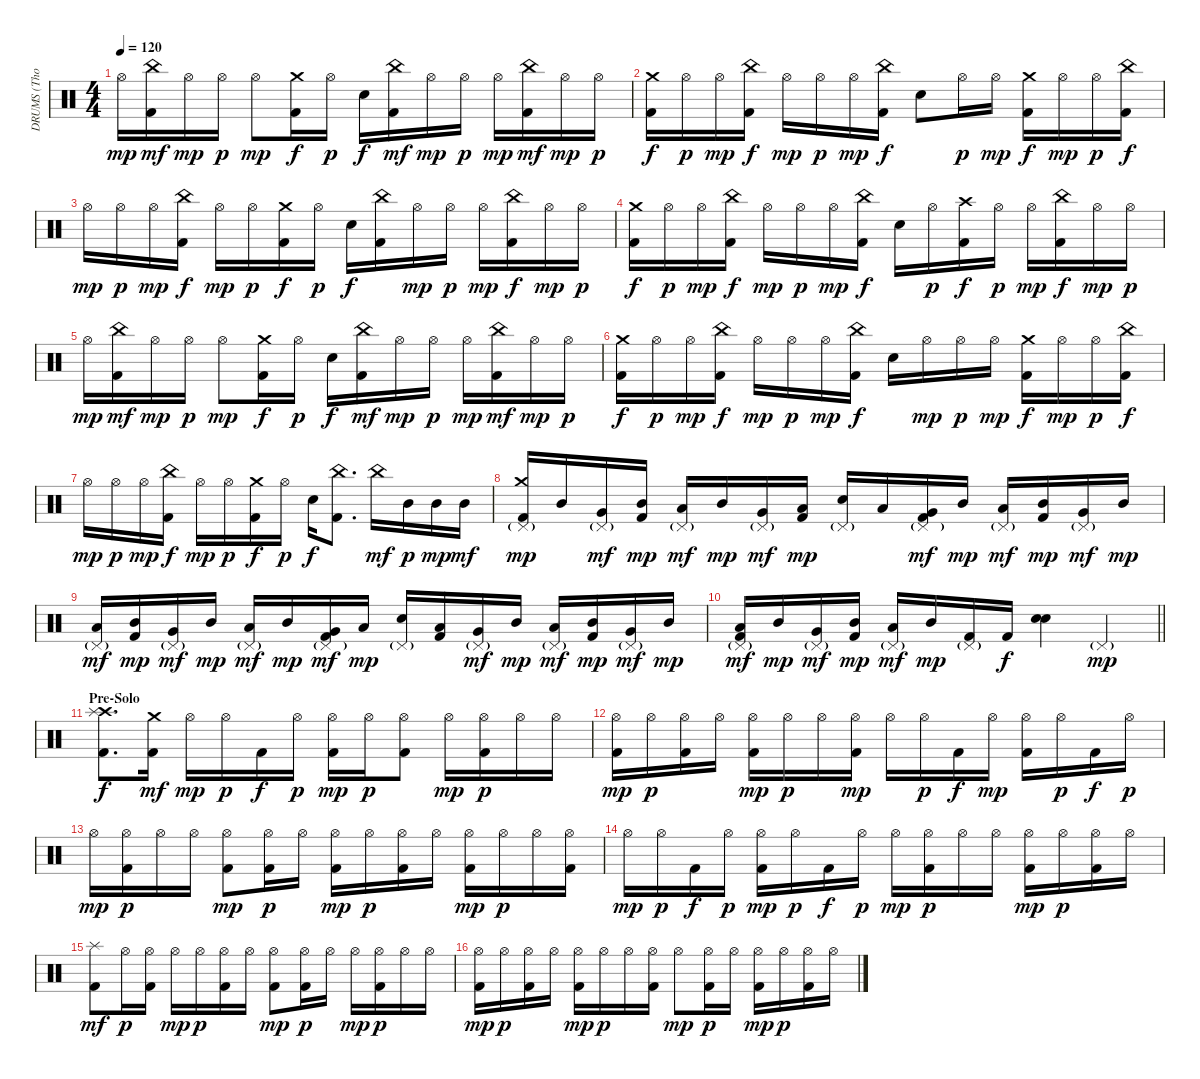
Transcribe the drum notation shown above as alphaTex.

\track ("DRUMS (Thomas Haake)" "DRUMS (Tho") {instrument percussion}
\staff {score}
\articulation defaults
\ts (4 4)
\tempo 120
\clef neutral
\ks c "Hi-Hat (open)".16{dy mp}
("China (hit)" "Kick (hit) 2").16{dy mf} "Hi-Hat (open)".16{dy mp} "Hi-Hat (open)".16{dy p} "Hi-Hat (open)".8{dy mp} ("Crash medium (hit)" "Kick (hit) 2").16{dy f} "Hi-Hat (open)".16{dy p} "Electric Snare (hit)".16{dy f} ("China (hit)" "Kick (hit) 2").16{dy mf} "Hi-Hat (open)".16{dy mp} "Hi-Hat (open)".16{dy p} "Hi-Hat (open)".16{dy mp} ("China (hit)" "Kick (hit) 2").16{dy mf} "Hi-Hat (open)".16{dy mp} "Hi-Hat (open)".16{dy p} |
("Crash medium (hit)" "Kick (hit) 2").16{dy f} "Hi-Hat (open)".16{dy p} "Hi-Hat (open)".16{dy mp} ("China (hit)" "Kick (hit) 2").16{dy f} "Hi-Hat (open)".16{dy mp} "Hi-Hat (open)".16{dy p} "Hi-Hat (open)".16{dy mp} ("China (hit)" "Kick (hit) 2").16{dy f} "Electric Snare (hit)".8 "Hi-Hat (open)".16{dy p} "Hi-Hat (open)".16{dy mp} ("Crash medium (hit)" "Kick (hit) 2").16{dy f} "Hi-Hat (open)".16{dy mp} "Hi-Hat (open)".16{dy p} ("China (hit)" "Kick (hit) 2").16{dy f} |
"Hi-Hat (open)".16{dy mp} "Hi-Hat (open)".16{dy p} "Hi-Hat (open)".16{dy mp} ("China (hit)" "Kick (hit) 2").16{dy f} "Hi-Hat (open)".16{dy mp} "Hi-Hat (open)".16{dy p} ("Crash medium (hit)" "Kick (hit) 2").16{dy f} "Hi-Hat (open)".16{dy p} "Electric Snare (hit)".16{dy f} ("China (hit)" "Kick (hit) 2").16 "Hi-Hat (open)".16{dy mp} "Hi-Hat (open)".16{dy p} "Hi-Hat (open)".16{dy mp} ("China (hit)" "Kick (hit) 2").16{dy f} "Hi-Hat (open)".16{dy mp} "Hi-Hat (open)".16{dy p} |
("Crash medium (hit)" "Kick (hit) 2").16{dy f} "Hi-Hat (open)".16{dy p} "Hi-Hat (open)".16{dy mp} ("China (hit)" "Kick (hit) 2").16{dy f} "Hi-Hat (open)".16{dy mp} "Hi-Hat (open)".16{dy p} "Hi-Hat (open)".16{dy mp} ("China (hit)" "Kick (hit) 2").16{dy f} "Electric Snare (hit)".16 "Hi-Hat (open)".16{dy p} ("Crash high (hit)" "Kick (hit) 2").16{dy f} "Hi-Hat (open)".16{dy p} "Hi-Hat (open)".16{dy mp} ("China (hit)" "Kick (hit) 2").16{dy f} "Hi-Hat (open)".16{dy mp} "Hi-Hat (open)".16{dy p} |
"Hi-Hat (open)".16{dy mp} ("China (hit)" "Kick (hit) 2").16{dy mf} "Hi-Hat (open)".16{dy mp} "Hi-Hat (open)".16{dy p} "Hi-Hat (open)".8{dy mp} ("Crash medium (hit)" "Kick (hit) 2").16{dy f} "Hi-Hat (open)".16{dy p} "Electric Snare (hit)".16{dy f} ("China (hit)" "Kick (hit) 2").16{dy mf} "Hi-Hat (open)".16{dy mp} "Hi-Hat (open)".16{dy p} "Hi-Hat (open)".16{dy mp} ("China (hit)" "Kick (hit) 2").16{dy mf} "Hi-Hat (open)".16{dy mp} "Hi-Hat (open)".16{dy p} |
("Crash medium (hit)" "Kick (hit) 2").16{dy f} "Hi-Hat (open)".16{dy p} "Hi-Hat (open)".16{dy mp} ("China (hit)" "Kick (hit) 2").16{dy f} "Hi-Hat (open)".16{dy mp} "Hi-Hat (open)".16{dy p} "Hi-Hat (open)".16{dy mp} ("China (hit)" "Kick (hit) 2").16{dy f} "Electric Snare (hit)".16 "Hi-Hat (open)".16{dy mp} "Hi-Hat (open)".16{dy p} "Hi-Hat (open)".16{dy mp} ("Crash medium (hit)" "Kick (hit) 2").16{dy f} "Hi-Hat (open)".16{dy mp} "Hi-Hat (open)".16{dy p} ("China (hit)" "Kick (hit) 2").16{dy f} |
"Hi-Hat (open)".16{dy mp} "Hi-Hat (open)".16{dy p} "Hi-Hat (open)".16{dy mp} ("China (hit)" "Kick (hit) 2").16{dy f} "Hi-Hat (open)".16{dy mp} "Hi-Hat (open)".16{dy p} ("Crash medium (hit)" "Kick (hit) 2").16{dy f} "Hi-Hat (open)".16{dy p} "Electric Snare (hit)".16{dy f} ("China (hit)" "Kick (hit) 2").8{d} "China (hit)".16{dy mf} "Mid Tom (hit)".16{dy p} "Mid Tom (hit)".16{dy mp} "Mid Tom (hit)".16{dy mf} |
("Pedal Hi-Hat (hit)"{g} "Crash medium (hit)" "Kick (hit) 2").16{dy mp} "Mid Tom (hit)".16 ("Pedal Hi-Hat (hit)"{g} "Very Low Tom (hit)").16{dy mf} ("Mid Tom (hit)" "Kick (hit) 2").16{dy mp} ("Pedal Hi-Hat (hit)"{g} "Low Floor Tom (hit)").16{dy mf} "Mid Tom (hit)".16{dy mp} ("Pedal Hi-Hat (hit)"{g} "Very Low Tom (hit)").16{dy mf} ("Low Tom (hit)" "Kick (hit) 2").16{dy mp} ("Pedal Hi-Hat (hit)"{g} "Electric Snare (hit)").16 "Low Tom (hit)".16 ("Pedal Hi-Hat (hit)"{g} "Very Low Tom (hit)" "Kick (hit) 2").16{dy mf} "Mid Tom (hit)".16{dy mp} ("Pedal Hi-Hat (hit)"{g} "Low Floor Tom (hit)").16{dy mf} ("Mid Tom (hit)" "Kick (hit) 2").16{dy mp} ("Pedal Hi-Hat (hit)"{g} "Very Low Tom (hit)").16{dy mf} "Mid Tom (hit)".16{dy mp} |
("Pedal Hi-Hat (hit)"{g} "Low Floor Tom (hit)").16{dy mf} ("Mid Tom (hit)" "Kick (hit) 2").16{dy mp} ("Pedal Hi-Hat (hit)"{g} "Very Low Tom (hit)").16{dy mf} "Mid Tom (hit)".16{dy mp} ("Pedal Hi-Hat (hit)"{g} "Low Floor Tom (hit)").16{dy mf} "Mid Tom (hit)".16{dy mp} ("Pedal Hi-Hat (hit)"{g} "Very Low Tom (hit)" "Kick (hit) 2").16{dy mf} "Low Tom (hit)".16{dy mp} ("Pedal Hi-Hat (hit)"{g} "Electric Snare (hit)").16 ("Low Tom (hit)" "Kick (hit) 2").16 ("Pedal Hi-Hat (hit)"{g} "Very Low Tom (hit)").16{dy mf} "Mid Tom (hit)".16{dy mp} ("Pedal Hi-Hat (hit)"{g} "Low Floor Tom (hit)").16{dy mf} ("Mid Tom (hit)" "Kick (hit) 2").16{dy mp} ("Pedal Hi-Hat (hit)"{g} "Very Low Tom (hit)").16{dy mf} "Mid Tom (hit)".16{dy mp} |
\barLineRight lightlight
("Pedal Hi-Hat (hit)"{g} "Low Floor Tom (hit)" "Kick (hit) 2").16{dy mf} "Mid Tom (hit)".16{dy mp} ("Pedal Hi-Hat (hit)"{g} "Very Low Tom (hit)").16{dy mf} ("Mid Tom (hit)" "Kick (hit) 2").16{dy mp} ("Pedal Hi-Hat (hit)"{g} "Low Floor Tom (hit)").16{dy mf} "Mid Tom (hit)".16{dy mp} ("Pedal Hi-Hat (hit)"{g} "Kick (hit) 2").16 "Kick (hit) 2".16{dy f} ("Electric Snare (hit)" "Electric Snare (hit)").4{bd 60} "Pedal Hi-Hat (hit)"{g}.4{dy mp} |
\section ("" "Pre-Solo")
("Crash high (hit)" "Splash (hit)" "Kick (hit) 2").8{d dy f} ("Crash medium (hit)" "Kick (hit) 2").16{dy mf} "Hi-Hat (open)".16{dy mp} "Hi-Hat (open)".16{dy p} "Kick (hit) 2".16{dy f} "Hi-Hat (open)".16{dy p} ("Hi-Hat (open)" "Kick (hit) 2").16{dy mp} "Hi-Hat (open)".16{dy p} ("Hi-Hat (open)" "Kick (hit) 2").8 "Hi-Hat (open)".16{dy mp} ("Hi-Hat (open)" "Kick (hit) 2").16{dy p} "Hi-Hat (open)".16 "Hi-Hat (open)".16 |
("Hi-Hat (open)" "Kick (hit) 2").16{dy mp} "Hi-Hat (open)".16{dy p} ("Hi-Hat (open)" "Kick (hit) 2").16 "Hi-Hat (open)".16 ("Hi-Hat (open)" "Kick (hit) 2").16{dy mp} "Hi-Hat (open)".16{dy p} "Hi-Hat (open)".16 ("Hi-Hat (open)" "Kick (hit) 2").16{dy mp} "Hi-Hat (open)".16 "Hi-Hat (open)".16{dy p} "Kick (hit) 2".16{dy f} "Hi-Hat (open)".16{dy mp} ("Hi-Hat (open)" "Kick (hit) 2").16 "Hi-Hat (open)".16{dy p} "Kick (hit) 2".16{dy f} "Hi-Hat (open)".16{dy p} |
"Hi-Hat (open)".16{dy mp} ("Hi-Hat (open)" "Kick (hit) 2").16{dy p} "Hi-Hat (open)".16 "Hi-Hat (open)".16 ("Hi-Hat (open)" "Kick (hit) 2").8{dy mp} ("Hi-Hat (open)" "Kick (hit) 2").16{dy p} "Hi-Hat (open)".16 ("Hi-Hat (open)" "Kick (hit) 2").16{dy mp} "Hi-Hat (open)".16{dy p} ("Hi-Hat (open)" "Kick (hit) 2").16 "Hi-Hat (open)".16 ("Hi-Hat (open)" "Kick (hit) 2").16{dy mp} "Hi-Hat (open)".16{dy p} "Hi-Hat (open)".16 ("Hi-Hat (open)" "Kick (hit) 2").16 |
"Hi-Hat (open)".16{dy mp} "Hi-Hat (open)".16{dy p} "Kick (hit) 2".16{dy f} "Hi-Hat (open)".16{dy p} ("Hi-Hat (open)" "Kick (hit) 2").16{dy mp} "Hi-Hat (open)".16{dy p} "Kick (hit) 2".16{dy f} "Hi-Hat (open)".16{dy p} "Hi-Hat (open)".16{dy mp} ("Hi-Hat (open)" "Kick (hit) 2").16{dy p} "Hi-Hat (open)".16 "Hi-Hat (open)".16 ("Hi-Hat (open)" "Kick (hit) 2").16{dy mp} "Hi-Hat (open)".16{dy p} ("Hi-Hat (open)" "Kick (hit) 2").16 "Hi-Hat (open)".16 |
("Splash (hit)" "Kick (hit) 2").8{dy mf} "Hi-Hat (open)".16{dy p} ("Hi-Hat (open)" "Kick (hit) 2").16 "Hi-Hat (open)".16{dy mp} "Hi-Hat (open)".16{dy p} ("Hi-Hat (open)" "Kick (hit) 2").16 "Hi-Hat (open)".16 ("Hi-Hat (open)" "Kick (hit) 2").8{dy mp} ("Hi-Hat (open)" "Kick (hit) 2").16{dy p} "Hi-Hat (open)".16 "Hi-Hat (open)".16{dy mp} ("Hi-Hat (open)" "Kick (hit) 2").16{dy p} "Hi-Hat (open)".16 "Hi-Hat (open)".16 |
("Hi-Hat (open)" "Kick (hit) 2").16{dy mp} "Hi-Hat (open)".16{dy p} ("Hi-Hat (open)" "Kick (hit) 2").16 "Hi-Hat (open)".16 ("Hi-Hat (open)" "Kick (hit) 2").16{dy mp} "Hi-Hat (open)".16{dy p} "Hi-Hat (open)".16 ("Hi-Hat (open)" "Kick (hit) 2").16 "Hi-Hat (open)".8{dy mp} ("Hi-Hat (open)" "Kick (hit) 2").16{dy p} "Hi-Hat (open)".16 ("Hi-Hat (open)" "Kick (hit) 2").16{dy mp} "Hi-Hat (open)".16{dy p} ("Hi-Hat (open)" "Kick (hit) 2").16 "Hi-Hat (open)".16
